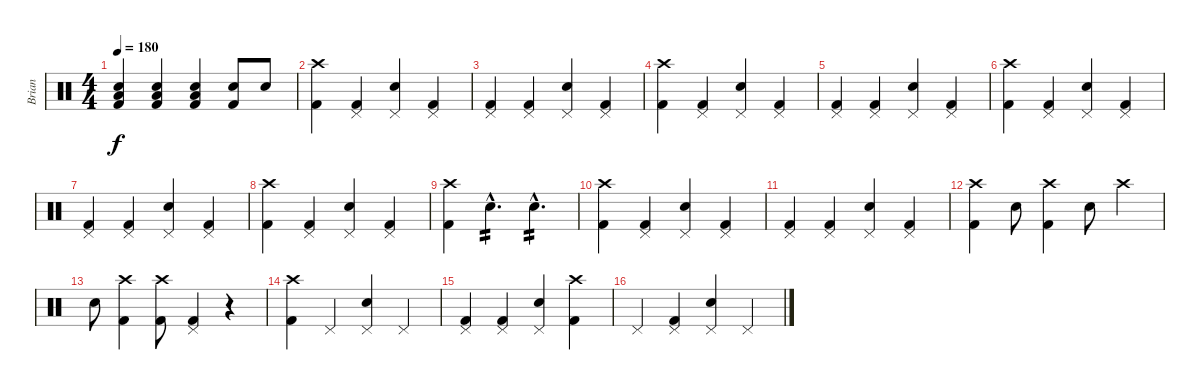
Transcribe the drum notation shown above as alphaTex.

\track ("Brian" "Brian") {instrument percussion}
\staff {score}
\articulation defaults
\ts (4 4)
\tempo 180
\clef neutral
\ks c
("Kick (hit) 2" "Snare (hit) 2" "Low Floor Tom (hit)").4{dy f} ("Kick (hit) 2" "Snare (hit) 2" "Low Floor Tom (hit)").4 ("Kick (hit) 2" "Snare (hit) 2" "Low Floor Tom (hit)").4 ("Kick (hit) 2" "Snare (hit) 2").8 "Snare (hit) 2".8 |
("Crash high (hit)" "Kick (hit) 2").4 ("Pedal Hi-Hat (hit)" "Kick (hit) 2").4 ("Pedal Hi-Hat (hit)" "Snare (hit) 2").4 ("Pedal Hi-Hat (hit)" "Kick (hit) 2").4 |
("Pedal Hi-Hat (hit)" "Kick (hit) 2").4 ("Pedal Hi-Hat (hit)" "Kick (hit) 2").4 ("Pedal Hi-Hat (hit)" "Snare (hit) 2").4 ("Pedal Hi-Hat (hit)" "Kick (hit) 2").4 |
("Crash high (hit)" "Kick (hit) 2").4 ("Pedal Hi-Hat (hit)" "Kick (hit) 2").4 ("Pedal Hi-Hat (hit)" "Snare (hit) 2").4 ("Pedal Hi-Hat (hit)" "Kick (hit) 2").4 |
("Pedal Hi-Hat (hit)" "Kick (hit) 2").4 ("Pedal Hi-Hat (hit)" "Kick (hit) 2").4 ("Pedal Hi-Hat (hit)" "Snare (hit) 2").4 ("Pedal Hi-Hat (hit)" "Kick (hit) 2").4 |
("Crash high (hit)" "Kick (hit) 2").4 ("Pedal Hi-Hat (hit)" "Kick (hit) 2").4 ("Pedal Hi-Hat (hit)" "Snare (hit) 2").4 ("Pedal Hi-Hat (hit)" "Kick (hit) 2").4 |
("Pedal Hi-Hat (hit)" "Kick (hit) 2").4 ("Pedal Hi-Hat (hit)" "Kick (hit) 2").4 ("Pedal Hi-Hat (hit)" "Snare (hit) 2").4 ("Pedal Hi-Hat (hit)" "Kick (hit) 2").4 |
("Crash high (hit)" "Kick (hit) 2").4 ("Pedal Hi-Hat (hit)" "Kick (hit) 2").4 ("Pedal Hi-Hat (hit)" "Snare (hit) 2").4 ("Pedal Hi-Hat (hit)" "Kick (hit) 2").4 |
("Crash high (hit)" "Kick (hit) 2").4 "Snare (hit) 2"{hac}.4{d tp 2} "Snare (hit) 2"{hac}.4{d tp 2} |
("Crash high (hit)" "Kick (hit) 2").4 ("Pedal Hi-Hat (hit)" "Kick (hit) 2").4 ("Pedal Hi-Hat (hit)" "Snare (hit) 2").4 ("Pedal Hi-Hat (hit)" "Kick (hit) 2").4 |
("Pedal Hi-Hat (hit)" "Kick (hit) 2").4 ("Pedal Hi-Hat (hit)" "Kick (hit) 2").4 ("Pedal Hi-Hat (hit)" "Snare (hit) 2").4 ("Pedal Hi-Hat (hit)" "Kick (hit) 2").4 |
("Crash high (hit)" "Kick (hit) 2").4 "Snare (hit) 2".8 ("Crash high (hit)" "Kick (hit) 2").4 "Snare (hit) 2".8 "Crash high (hit)".4 |
"Snare (hit) 2".8 ("Crash high (hit)" "Kick (hit) 2").4 ("Crash high (hit)" "Kick (hit) 2").8 ("Pedal Hi-Hat (hit)" "Kick (hit) 2").4 r.4 |
("Crash high (hit)" "Kick (hit) 2").4 "Pedal Hi-Hat (hit)".4 ("Pedal Hi-Hat (hit)" "Snare (hit) 2").4 "Pedal Hi-Hat (hit)".4 |
("Pedal Hi-Hat (hit)" "Kick (hit) 2").4 ("Pedal Hi-Hat (hit)" "Kick (hit) 2").4 ("Pedal Hi-Hat (hit)" "Snare (hit) 2").4 ("Crash high (hit)" "Kick (hit) 2").4 |
"Pedal Hi-Hat (hit)".4 ("Pedal Hi-Hat (hit)" "Kick (hit) 2").4 ("Pedal Hi-Hat (hit)" "Snare (hit) 2").4 "Pedal Hi-Hat (hit)".4
